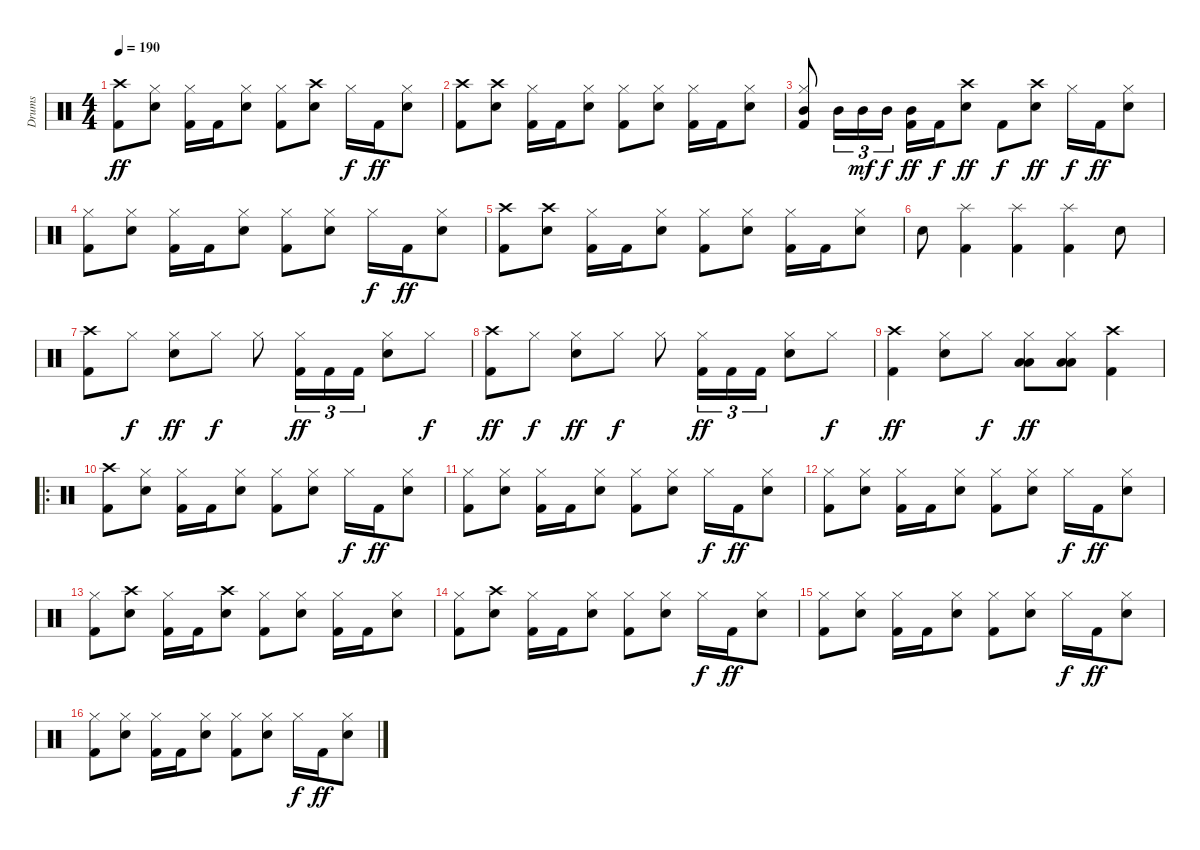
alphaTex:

\track ("Drums" "Drums") {instrument percussion}
\staff {score}
\articulation defaults
\ts (4 4)
\tempo 190
\clef neutral
\ks c
("Crash high (hit)" "Kick (hit) 2").8{dy ff} ("Hi-Hat (closed)" "Snare (hit) 2").8 ("Hi-Hat (closed)" "Kick (hit) 2").16 "Kick (hit) 2".16 ("Hi-Hat (closed)" "Snare (hit) 2").8 ("Hi-Hat (closed)" "Kick (hit) 2").8 ("Crash high (hit)" "Snare (hit) 2").8 "Hi-Hat (closed)".16{dy f} "Kick (hit) 2".16{dy ff} ("Hi-Hat (closed)" "Snare (hit) 2").8 |
("Crash high (hit)" "Kick (hit) 2").8 ("Crash high (hit)" "Snare (hit) 2").8 ("Hi-Hat (closed)" "Kick (hit) 2").16 "Kick (hit) 2".16 ("Hi-Hat (closed)" "Snare (hit) 2").8 ("Hi-Hat (closed)" "Kick (hit) 2").8 ("Hi-Hat (closed)" "Snare (hit) 2").8 ("Hi-Hat (closed)" "Kick (hit) 2").16 "Kick (hit) 2".16 ("Hi-Hat (closed)" "Snare (hit) 2").8 |
("Hi-Hat (closed)" "Mid Tom (hit)" "Kick (hit) 2").8 "Mid Tom (hit)".16{tu (3 2)} "Mid Tom (hit)".16{tu (3 2) dy mf} "Mid Tom (hit)".16{tu (3 2) dy f} ("Mid Tom (hit)" "Kick (hit) 2").16{dy ff} "Kick (hit) 2".16{dy f} ("Crash high (hit)" "Snare (hit) 2").8{dy ff} "Kick (hit) 2".8{dy f} ("Crash high (hit)" "Snare (hit) 2").8{dy ff} "Hi-Hat (closed)".16{dy f} "Kick (hit) 2".16{dy ff} ("Hi-Hat (closed)" "Snare (hit) 2").8 |
("Hi-Hat (closed)" "Kick (hit) 2").8 ("Hi-Hat (closed)" "Snare (hit) 2").8 ("Hi-Hat (closed)" "Kick (hit) 2").16 "Kick (hit) 2".16 ("Hi-Hat (closed)" "Snare (hit) 2").8 ("Hi-Hat (closed)" "Kick (hit) 2").8 ("Hi-Hat (closed)" "Snare (hit) 2").8 "Hi-Hat (closed)".16{dy f} "Kick (hit) 2".16{dy ff} ("Hi-Hat (closed)" "Snare (hit) 2").8 |
("Crash high (hit)" "Kick (hit) 2").8 ("Crash high (hit)" "Snare (hit) 2").8 ("Hi-Hat (closed)" "Kick (hit) 2").16 "Kick (hit) 2".16 ("Hi-Hat (closed)" "Snare (hit) 2").8 ("Hi-Hat (closed)" "Kick (hit) 2").8 ("Hi-Hat (closed)" "Snare (hit) 2").8 ("Hi-Hat (closed)" "Kick (hit) 2").16 "Kick (hit) 2".16 ("Hi-Hat (closed)" "Snare (hit) 2").8 |
"Snare (hit) 2".8 ("Splash (hit)" "Kick (hit) 2").4 ("Splash (hit)" "Kick (hit) 2").4 ("Splash (hit)" "Kick (hit) 2").4 "Snare (hit) 2".8 |
("Crash high (hit)" "Kick (hit) 2").8 "Hi-Hat (closed)".8{dy f} ("Hi-Hat (closed)" "Snare (hit) 2").8{dy ff} "Hi-Hat (closed)".8{dy f} "Hi-Hat (closed)".8 ("Hi-Hat (closed)" "Kick (hit) 2").16{tu (3 2) dy ff} "Kick (hit) 2".16{tu (3 2)} "Kick (hit) 2".16{tu (3 2)} ("Hi-Hat (closed)" "Snare (hit) 2").8 "Hi-Hat (closed)".8{dy f} |
("Crash high (hit)" "Kick (hit) 2").8{dy ff} "Hi-Hat (closed)".8{dy f} ("Hi-Hat (closed)" "Snare (hit) 2").8{dy ff} "Hi-Hat (closed)".8{dy f} "Hi-Hat (closed)".8 ("Hi-Hat (closed)" "Kick (hit) 2").16{tu (3 2) dy ff} "Kick (hit) 2".16{tu (3 2)} "Kick (hit) 2".16{tu (3 2)} ("Hi-Hat (closed)" "Snare (hit) 2").8 "Hi-Hat (closed)".8{dy f} |
("Crash high (hit)" "Kick (hit) 2").4{dy ff} ("Hi-Hat (closed)" "Snare (hit) 2").8 "Hi-Hat (closed)".8{dy f} ("Hi-Hat (closed)" "Low Tom (hit)" "Low Floor Tom (hit)").8{dy ff} ("Hi-Hat (closed)" "Low Tom (hit)" "Low Floor Tom (hit)").8 ("Crash high (hit)" "Kick (hit) 2").4 |
\ro
("Crash high (hit)" "Kick (hit) 2").8 ("Hi-Hat (closed)" "Snare (hit) 2").8 ("Hi-Hat (closed)" "Kick (hit) 2").16 "Kick (hit) 2".16 ("Hi-Hat (closed)" "Snare (hit) 2").8 ("Hi-Hat (closed)" "Kick (hit) 2").8 ("Hi-Hat (closed)" "Snare (hit) 2").8 "Hi-Hat (closed)".16{dy f} "Kick (hit) 2".16{dy ff} ("Hi-Hat (closed)" "Snare (hit) 2").8 |
("Hi-Hat (closed)" "Kick (hit) 2").8 ("Hi-Hat (closed)" "Snare (hit) 2").8 ("Hi-Hat (closed)" "Kick (hit) 2").16 "Kick (hit) 2".16 ("Hi-Hat (closed)" "Snare (hit) 2").8 ("Hi-Hat (closed)" "Kick (hit) 2").8 ("Hi-Hat (closed)" "Snare (hit) 2").8 "Hi-Hat (closed)".16{dy f} "Kick (hit) 2".16{dy ff} ("Hi-Hat (closed)" "Snare (hit) 2").8 |
("Hi-Hat (closed)" "Kick (hit) 2").8 ("Hi-Hat (closed)" "Snare (hit) 2").8 ("Hi-Hat (closed)" "Kick (hit) 2").16 "Kick (hit) 2".16 ("Hi-Hat (closed)" "Snare (hit) 2").8 ("Hi-Hat (closed)" "Kick (hit) 2").8 ("Hi-Hat (closed)" "Snare (hit) 2").8 "Hi-Hat (closed)".16{dy f} "Kick (hit) 2".16{dy ff} ("Hi-Hat (closed)" "Snare (hit) 2").8 |
("Hi-Hat (closed)" "Kick (hit) 2").8 ("Crash high (hit)" "Snare (hit) 2").8 ("Hi-Hat (closed)" "Kick (hit) 2").16 "Kick (hit) 2".16 ("Crash high (hit)" "Snare (hit) 2").8 ("Hi-Hat (closed)" "Kick (hit) 2").8 ("Hi-Hat (closed)" "Snare (hit) 2").8 ("Hi-Hat (closed)" "Kick (hit) 2").16 "Kick (hit) 2".16 ("Hi-Hat (closed)" "Snare (hit) 2").8 |
("Hi-Hat (closed)" "Kick (hit) 2").8 ("Crash high (hit)" "Snare (hit) 2").8 ("Hi-Hat (closed)" "Kick (hit) 2").16 "Kick (hit) 2".16 ("Hi-Hat (closed)" "Snare (hit) 2").8 ("Hi-Hat (closed)" "Kick (hit) 2").8 ("Hi-Hat (closed)" "Snare (hit) 2").8 "Hi-Hat (closed)".16{dy f} "Kick (hit) 2".16{dy ff} ("Hi-Hat (closed)" "Snare (hit) 2").8 |
("Hi-Hat (closed)" "Kick (hit) 2").8 ("Hi-Hat (closed)" "Snare (hit) 2").8 ("Hi-Hat (closed)" "Kick (hit) 2").16 "Kick (hit) 2".16 ("Hi-Hat (closed)" "Snare (hit) 2").8 ("Hi-Hat (closed)" "Kick (hit) 2").8 ("Hi-Hat (closed)" "Snare (hit) 2").8 "Hi-Hat (closed)".16{dy f} "Kick (hit) 2".16{dy ff} ("Hi-Hat (closed)" "Snare (hit) 2").8 |
("Hi-Hat (closed)" "Kick (hit) 2").8 ("Hi-Hat (closed)" "Snare (hit) 2").8 ("Hi-Hat (closed)" "Kick (hit) 2").16 "Kick (hit) 2".16 ("Hi-Hat (closed)" "Snare (hit) 2").8 ("Hi-Hat (closed)" "Kick (hit) 2").8 ("Hi-Hat (closed)" "Snare (hit) 2").8 "Hi-Hat (closed)".16{dy f} "Kick (hit) 2".16{dy ff} ("Hi-Hat (closed)" "Snare (hit) 2").8
